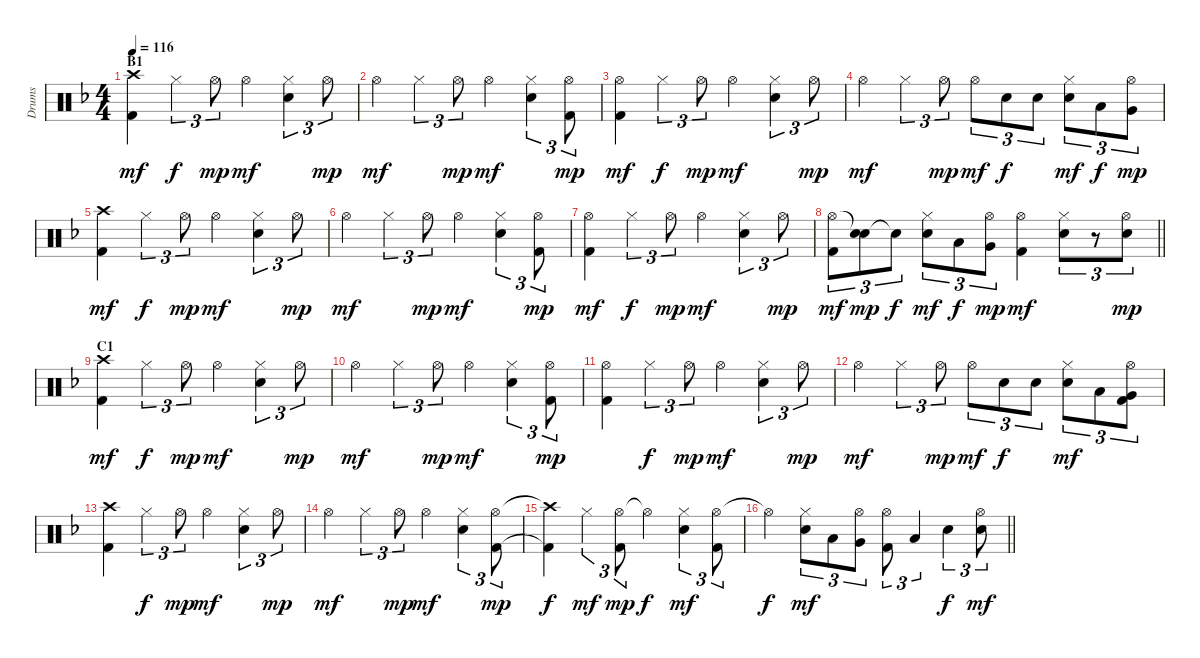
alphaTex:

\track ("Drums" "Drums") {instrument percussion}
\staff {score}
\articulation defaults
\ts (4 4)
\section ("" "B1")
\tempo 116
\clef neutral
\ks f
("Crash high (hit)" "Kick (hit) 2").4{dy mf} "Hi-Hat (closed)".4{tu (3 2) dy f} "Hi-Hat (open)".8{tu (3 2) dy mp} "Hi-Hat (open)".4{dy mf} ("Hi-Hat (closed)" "Snare (hit) 2").4{tu (3 2)} "Hi-Hat (open)".8{tu (3 2) dy mp} |
"Hi-Hat (open)".4{dy mf} "Hi-Hat (closed)".4{tu (3 2)} "Hi-Hat (open)".8{tu (3 2) dy mp} "Hi-Hat (open)".4{dy mf} ("Hi-Hat (closed)" "Snare (hit) 2").4{tu (3 2)} ("Hi-Hat (open)" "Kick (hit) 2").8{tu (3 2) dy mp} |
("Hi-Hat (open)" "Kick (hit) 2").4{dy mf} "Hi-Hat (closed)".4{tu (3 2) dy f} "Hi-Hat (open)".8{tu (3 2) dy mp} "Hi-Hat (open)".4{dy mf} ("Hi-Hat (closed)" "Snare (hit) 2").4{tu (3 2)} "Hi-Hat (open)".8{tu (3 2) dy mp} |
"Hi-Hat (open)".4{dy mf} "Hi-Hat (closed)".4{tu (3 2)} "Hi-Hat (open)".8{tu (3 2) dy mp} "Hi-Hat (open)".8{tu (3 2) dy mf} "Snare (hit) 2".8{tu (3 2) dy f} "Snare (hit) 2".8{tu (3 2)} ("Hi-Hat (closed)" "Snare (hit) 2").8{tu (3 2) dy mf} "Low Tom (hit)".8{tu (3 2) dy f} ("Hi-Hat (open)" "Very Low Tom (hit)").8{tu (3 2) dy mp} |
("Crash high (hit)" "Kick (hit) 2").4{dy mf} "Hi-Hat (closed)".4{tu (3 2) dy f} "Hi-Hat (open)".8{tu (3 2) dy mp} "Hi-Hat (open)".4{dy mf} ("Hi-Hat (closed)" "Snare (hit) 2").4{tu (3 2)} "Hi-Hat (open)".8{tu (3 2) dy mp} |
"Hi-Hat (open)".4{dy mf} "Hi-Hat (closed)".4{tu (3 2)} "Hi-Hat (open)".8{tu (3 2) dy mp} "Hi-Hat (open)".4{dy mf} ("Hi-Hat (closed)" "Snare (hit) 2").4{tu (3 2)} ("Hi-Hat (open)" "Kick (hit) 2").8{tu (3 2) dy mp} |
("Hi-Hat (open)" "Kick (hit) 2").4{dy mf} "Hi-Hat (closed)".4{tu (3 2) dy f} "Hi-Hat (open)".8{tu (3 2) dy mp} "Hi-Hat (open)".4{dy mf} ("Hi-Hat (closed)" "Snare (hit) 2").4{tu (3 2)} "Hi-Hat (open)".8{tu (3 2) dy mp} |
\barLineRight lightlight
("Hi-Hat (open)" "Kick (hit) 2").8{tu (3 2) dy mf} ("Snare (hit)"{t} "Snare (hit) 2").8{tu (3 2) dy mp} "Snare (hit)"{t}.8{tu (3 2) dy f} ("Hi-Hat (closed)" "Snare (hit) 2").8{tu (3 2) dy mf} "Low Tom (hit)".8{tu (3 2) dy f} ("Hi-Hat (open)" "Very Low Tom (hit)").8{tu (3 2) dy mp} ("Hi-Hat (open)" "Kick (hit) 2").4{dy mf} ("Hi-Hat (closed)" "Snare (hit) 2").8{tu (3 2)} r.8{tu (3 2)} ("Hi-Hat (open)" "Snare (hit) 2").8{tu (3 2) dy mp} |
\section ("" "C1")
("Crash high (hit)" "Kick (hit) 2").4{dy mf} "Hi-Hat (closed)".4{tu (3 2) dy f} "Hi-Hat (open)".8{tu (3 2) dy mp} "Hi-Hat (open)".4{dy mf} ("Hi-Hat (closed)" "Snare (hit) 2").4{tu (3 2)} "Hi-Hat (open)".8{tu (3 2) dy mp} |
"Hi-Hat (open)".4{dy mf} "Hi-Hat (closed)".4{tu (3 2)} "Hi-Hat (open)".8{tu (3 2) dy mp} "Hi-Hat (open)".4{dy mf} ("Hi-Hat (closed)" "Snare (hit) 2").4{tu (3 2)} ("Hi-Hat (open)" "Kick (hit) 2").8{tu (3 2) dy mp} |
("Hi-Hat (open)" "Kick (hit) 2").4 "Hi-Hat (closed)".4{tu (3 2) dy f} "Hi-Hat (open)".8{tu (3 2) dy mp} "Hi-Hat (open)".4{dy mf} ("Hi-Hat (closed)" "Snare (hit) 2").4{tu (3 2)} "Hi-Hat (open)".8{tu (3 2) dy mp} |
"Hi-Hat (open)".4{dy mf} "Hi-Hat (closed)".4{tu (3 2)} "Hi-Hat (open)".8{tu (3 2) dy mp} "Hi-Hat (open)".8{tu (3 2) dy mf} "Snare (hit) 2".8{tu (3 2) dy f} "Snare (hit) 2".8{tu (3 2)} ("Hi-Hat (closed)" "Snare (hit) 2").8{tu (3 2) dy mf} "Low Tom (hit)".8{tu (3 2)} ("Hi-Hat (open)" "Very Low Tom (hit)" "Kick (hit) 2").8{tu (3 2)} |
("Crash high (hit)" "Kick (hit) 2").4 "Hi-Hat (closed)".4{tu (3 2) dy f} "Hi-Hat (open)".8{tu (3 2) dy mp} "Hi-Hat (open)".4{dy mf} ("Hi-Hat (closed)" "Snare (hit) 2").4{tu (3 2)} "Hi-Hat (open)".8{tu (3 2) dy mp} |
"Hi-Hat (open)".4{dy mf} "Hi-Hat (closed)".4{tu (3 2)} "Hi-Hat (open)".8{tu (3 2) dy mp} "Hi-Hat (open)".4{dy mf} ("Hi-Hat (closed)" "Snare (hit) 2").4{tu (3 2)} ("Hi-Hat (open)" "Kick (hit) 2").8{tu (3 2) dy mp} |
("Crash high (hit)"{t} "Kick (hit) 2"{t}).4{dy f} "Hi-Hat (closed)".4{tu (3 2) dy mf} ("Hi-Hat (open)" "Kick (hit) 2").8{tu (3 2) dy mp} "Hi-Hat (open)"{t}.4{dy f} ("Hi-Hat (closed)" "Snare (hit) 2").4{tu (3 2) dy mf} ("Hi-Hat (open)" "Kick (hit) 2").8{tu (3 2)} |
\barLineRight lightlight "Hi-Hat (open)"{t}.4{dy f}
("Hi-Hat (closed)" "Snare (hit) 2").8{tu (3 2) dy mf} "Low Tom (hit)".8{tu (3 2)} ("Hi-Hat (open)" "Very Low Tom (hit)").8{tu (3 2)} ("Hi-Hat (open)" "Kick (hit) 2").8{tu (3 2)} "Low Tom (hit)".4{tu (3 2)} "Snare (hit) 2".4{tu (3 2) dy f} ("Hi-Hat (open)" "Snare (hit) 2").8{tu (3 2) dy mf}
